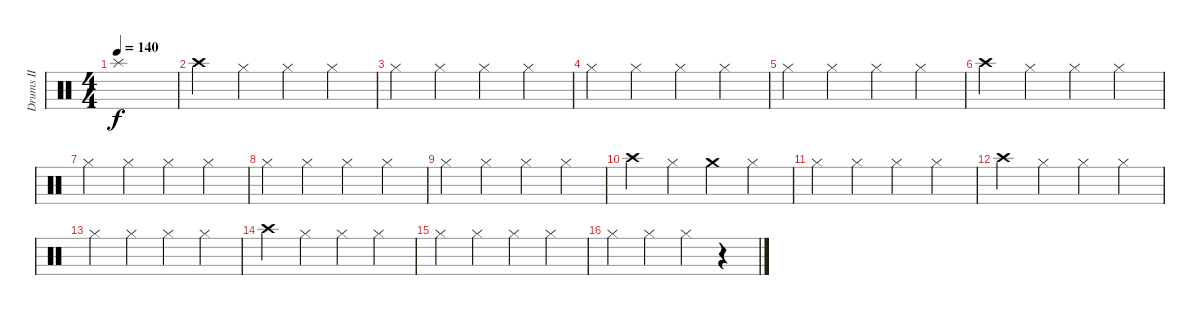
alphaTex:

\track ("Drums II" "Drums II") {instrument percussion}
\staff {score}
\articulation defaults
\ts (4 4)
\tempo 140
\clef neutral
\ks c "Splash (hit)".1{dy f}
|
"Crash high (hit)".4 "Hi-Hat (closed)".4 "Hi-Hat (closed)".4 "Hi-Hat (closed)".4 |
"Hi-Hat (closed)".4 "Hi-Hat (closed)".4 "Hi-Hat (closed)".4 "Hi-Hat (closed)".4 |
"Hi-Hat (closed)".4 "Hi-Hat (closed)".4 "Hi-Hat (closed)".4 "Hi-Hat (closed)".4 |
"Hi-Hat (closed)".4 "Hi-Hat (closed)".4 "Hi-Hat (closed)".4 "Hi-Hat (closed)".4 |
"Crash high (hit)".4 "Hi-Hat (closed)".4 "Hi-Hat (closed)".4 "Hi-Hat (closed)".4 |
"Hi-Hat (closed)".4 "Hi-Hat (closed)".4 "Hi-Hat (closed)".4 "Hi-Hat (closed)".4 |
"Hi-Hat (closed)".4 "Hi-Hat (closed)".4 "Hi-Hat (closed)".4 "Hi-Hat (closed)".4 |
"Hi-Hat (closed)".4 "Hi-Hat (closed)".4 "Hi-Hat (closed)".4 "Hi-Hat (closed)".4 |
"Crash high (hit)".4 "Hi-Hat (closed)".4 "Crash medium (hit)".4 "Hi-Hat (closed)".4 |
"Hi-Hat (closed)".4 "Hi-Hat (closed)".4 "Hi-Hat (closed)".4 "Hi-Hat (closed)".4 |
"Crash high (hit)".4 "Hi-Hat (closed)".4 "Hi-Hat (closed)".4 "Hi-Hat (closed)".4 |
"Hi-Hat (closed)".4 "Hi-Hat (closed)".4 "Hi-Hat (closed)".4 "Hi-Hat (closed)".4 |
"Crash high (hit)".4 "Hi-Hat (closed)".4 "Hi-Hat (closed)".4 "Hi-Hat (closed)".4 |
"Hi-Hat (closed)".4 "Hi-Hat (closed)".4 "Hi-Hat (closed)".4 "Hi-Hat (closed)".4 |
"Hi-Hat (closed)".4 "Hi-Hat (closed)".4 "Hi-Hat (closed)".4 r.4
